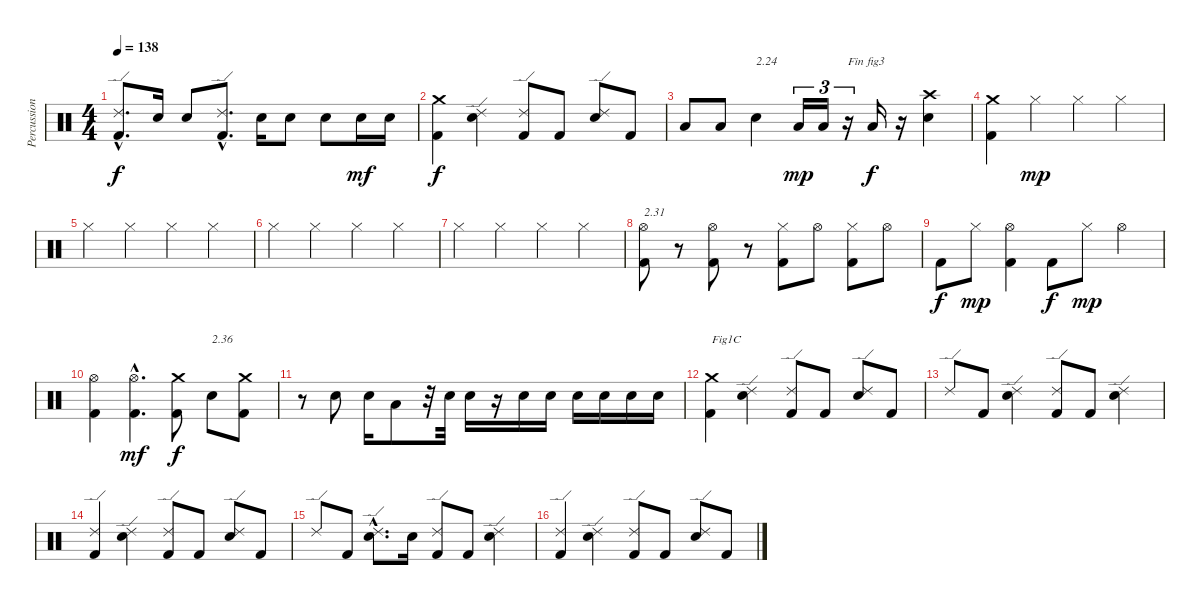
\track ("Percussions" "Percussion") {instrument percussion}
\staff {score}
\articulation defaults
\ts (4 4)
\tempo 138
\clef neutral
\ks c
("Kick (hit) 2"{hac} "Ride (edge) 2"{hac}).8{d dy f} "Electric Snare (hit)".16 "Electric Snare (hit)".8 ("Kick (hit) 2"{hac} "Ride (edge) 2"{hac}).8{d} "Electric Snare (hit)".16 "Electric Snare (hit)".8 "Electric Snare (hit)".8 "Electric Snare (hit)".16{dy mf} "Electric Snare (hit)".16 |
("Kick (hit) 2" "Crash medium (hit)").4{dy f} ("Electric Snare (hit)" "Ride (edge) 2").4 ("Kick (hit) 2" "Ride (edge) 2").8 "Kick (hit) 2".8 ("Electric Snare (hit)" "Ride (edge) 2").8 "Kick (hit) 2".8 |
"Low Floor Tom (hit)".8 "Low Floor Tom (hit)".8 "Electric Snare (hit)".4{txt "2.24"} "Low Floor Tom (hit)".16{tu (3 2) dy mp} "Low Floor Tom (hit)".16{tu (3 2)} r.16{tu (3 2) txt "Fin fig3"} "Low Floor Tom (hit)".16{dy f} r.16 ("Electric Snare (hit)" "Crash high (hit)").4 |
("Kick (hit) 2" "Crash medium (hit)").4 "Hi-Hat (closed)".4{dy mp} "Hi-Hat (closed)".4 "Hi-Hat (closed)".4 |
"Hi-Hat (closed)".4 "Hi-Hat (closed)".4 "Hi-Hat (closed)".4 "Hi-Hat (closed)".4 |
"Hi-Hat (closed)".4 "Hi-Hat (closed)".4 "Hi-Hat (closed)".4 "Hi-Hat (closed)".4 |
"Hi-Hat (closed)".4 "Hi-Hat (closed)".4 "Hi-Hat (closed)".4 "Hi-Hat (closed)".4 |
("Kick (hit) 2" "Hi-Hat (open)").8{txt "2.31"} r.8 ("Kick (hit) 2" "Hi-Hat (open)").8 r.8 ("Kick (hit) 2" "Hi-Hat (closed)").8 "Hi-Hat (open)".8 ("Kick (hit) 2" "Hi-Hat (closed)").8 "Hi-Hat (open)".8 |
"Kick (hit) 2".8{dy f} "Hi-Hat (closed)".8{dy mp} ("Kick (hit) 2" "Hi-Hat (open)").4 "Kick (hit) 2".8{dy f} "Hi-Hat (closed)".8{dy mp} "Hi-Hat (open)".4 |
("Kick (hit) 2" "Hi-Hat (open)").4 ("Kick (hit) 2"{hac} "Hi-Hat (open)"{hac}).4{d dy mf} ("Kick (hit) 2" "Crash medium (hit)").8{dy f} "Electric Snare (hit)".8{txt "2.36"} ("Kick (hit) 2" "Crash medium (hit)").8 |
r.8 "Electric Snare (hit)".8 "Electric Snare (hit)".16 "Low Floor Tom (hit)".8 r.32 "Electric Snare (hit)".32 "Electric Snare (hit)".16 r.16 "Electric Snare (hit)".16 "Electric Snare (hit)".16 "Electric Snare (hit)".16 "Electric Snare (hit)".16 "Electric Snare (hit)".16 "Electric Snare (hit)".16 |
("Kick (hit) 2" "Crash medium (hit)").4{txt "Fig1C"} ("Electric Snare (hit)" "Ride (edge) 2").4 ("Kick (hit) 2" "Ride (edge) 2").8 "Kick (hit) 2".8 ("Electric Snare (hit)" "Ride (edge) 2").8 "Kick (hit) 2".8 |
"Ride (edge) 2".8 "Kick (hit) 2".8 ("Electric Snare (hit)" "Ride (edge) 2").4 ("Kick (hit) 2" "Ride (edge) 2").8 "Kick (hit) 2".8 ("Electric Snare (hit)" "Ride (edge) 2").4 |
("Kick (hit) 2" "Ride (edge) 2").4 ("Electric Snare (hit)" "Ride (edge) 2").4 ("Kick (hit) 2" "Ride (edge) 2").8 "Kick (hit) 2".8 ("Electric Snare (hit)" "Ride (edge) 2").8 "Kick (hit) 2".8 |
"Ride (edge) 2".8 "Kick (hit) 2".8 ("Electric Snare (hit)"{hac} "Ride (edge) 2"{hac}).8{d} "Electric Snare (hit)".16 ("Kick (hit) 2" "Ride (edge) 2").8 "Kick (hit) 2".8 ("Electric Snare (hit)" "Ride (edge) 2").4 |
("Kick (hit) 2" "Ride (edge) 2").4 ("Electric Snare (hit)" "Ride (edge) 2").4 ("Kick (hit) 2" "Ride (edge) 2").8 "Kick (hit) 2".8 ("Electric Snare (hit)" "Ride (edge) 2").8 "Kick (hit) 2".8
